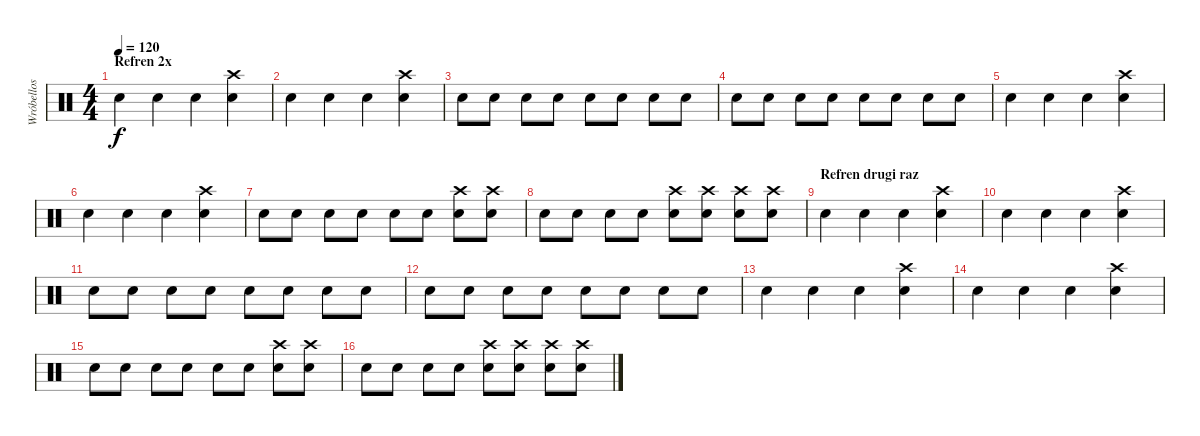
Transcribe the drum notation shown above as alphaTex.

\track ("Wróbellos " "Wróbellos ") {instrument percussion}
\staff {score}
\articulation defaults
\ts (4 4)
\section ("" "Refren 2x")
\tempo 120
\clef neutral
\ks c "Electric Snare (hit)".4{dy f} "Electric Snare (hit)".4 "Electric Snare (hit)".4
("Electric Snare (hit)" "Crash high (hit)").4 |
"Electric Snare (hit)".4 "Electric Snare (hit)".4 "Electric Snare (hit)".4 ("Electric Snare (hit)" "Crash high (hit)").4 |
"Electric Snare (hit)".8 "Electric Snare (hit)".8 "Electric Snare (hit)".8 "Electric Snare (hit)".8 "Electric Snare (hit)".8 "Electric Snare (hit)".8 "Electric Snare (hit)".8 "Electric Snare (hit)".8 |
"Electric Snare (hit)".8 "Electric Snare (hit)".8 "Electric Snare (hit)".8 "Electric Snare (hit)".8 "Electric Snare (hit)".8 "Electric Snare (hit)".8 "Electric Snare (hit)".8 "Electric Snare (hit)".8 |
"Electric Snare (hit)".4 "Electric Snare (hit)".4 "Electric Snare (hit)".4 ("Electric Snare (hit)" "Crash high (hit)").4 |
"Electric Snare (hit)".4 "Electric Snare (hit)".4 "Electric Snare (hit)".4 ("Electric Snare (hit)" "Crash high (hit)").4 |
"Electric Snare (hit)".8 "Electric Snare (hit)".8 "Electric Snare (hit)".8 "Electric Snare (hit)".8 "Electric Snare (hit)".8 "Electric Snare (hit)".8 ("Electric Snare (hit)" "Crash high (hit)").8 ("Electric Snare (hit)" "Crash high (hit)").8 |
"Electric Snare (hit)".8 "Electric Snare (hit)".8 "Electric Snare (hit)".8 "Electric Snare (hit)".8 ("Electric Snare (hit)" "Crash high (hit)").8 ("Electric Snare (hit)" "Crash high (hit)").8 ("Electric Snare (hit)" "Crash high (hit)").8 ("Electric Snare (hit)" "Crash high (hit)").8 |
\section ("" "Refren drugi raz")
"Electric Snare (hit)".4 "Electric Snare (hit)".4 "Electric Snare (hit)".4 ("Electric Snare (hit)" "Crash high (hit)").4 |
"Electric Snare (hit)".4 "Electric Snare (hit)".4 "Electric Snare (hit)".4 ("Electric Snare (hit)" "Crash high (hit)").4 |
"Electric Snare (hit)".8 "Electric Snare (hit)".8 "Electric Snare (hit)".8 "Electric Snare (hit)".8 "Electric Snare (hit)".8 "Electric Snare (hit)".8 "Electric Snare (hit)".8 "Electric Snare (hit)".8 |
"Electric Snare (hit)".8 "Electric Snare (hit)".8 "Electric Snare (hit)".8 "Electric Snare (hit)".8 "Electric Snare (hit)".8 "Electric Snare (hit)".8 "Electric Snare (hit)".8 "Electric Snare (hit)".8 |
"Electric Snare (hit)".4 "Electric Snare (hit)".4 "Electric Snare (hit)".4 ("Electric Snare (hit)" "Crash high (hit)").4 |
"Electric Snare (hit)".4 "Electric Snare (hit)".4 "Electric Snare (hit)".4 ("Electric Snare (hit)" "Crash high (hit)").4 |
"Electric Snare (hit)".8 "Electric Snare (hit)".8 "Electric Snare (hit)".8 "Electric Snare (hit)".8 "Electric Snare (hit)".8 "Electric Snare (hit)".8 ("Electric Snare (hit)" "Crash high (hit)").8 ("Electric Snare (hit)" "Crash high (hit)").8 |
"Electric Snare (hit)".8 "Electric Snare (hit)".8 "Electric Snare (hit)".8 "Electric Snare (hit)".8 ("Electric Snare (hit)" "Crash high (hit)").8 ("Electric Snare (hit)" "Crash high (hit)").8 ("Electric Snare (hit)" "Crash high (hit)").8 ("Electric Snare (hit)" "Crash high (hit)").8
